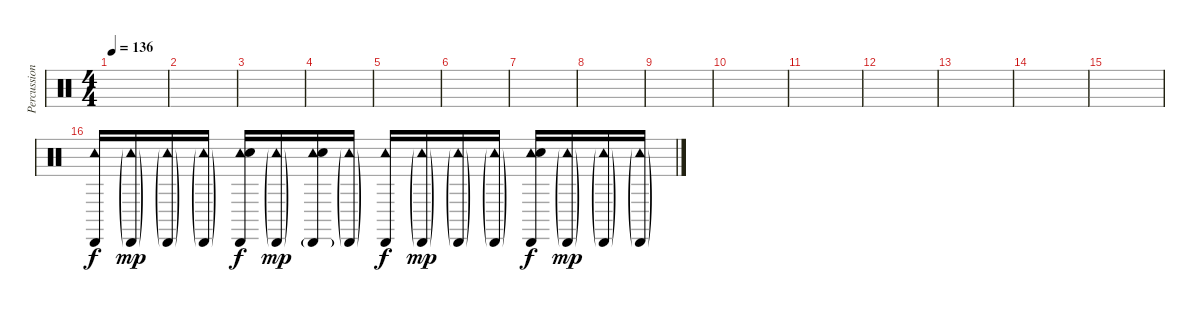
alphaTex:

\track ("Percussion (2)" "Percussion") {instrument percussion}
\staff {score}
\articulation defaults
\ts (4 4)
\tempo 136
\clef neutral
\ks c
|
|
|
|
|
|
|
|
|
|
|
|
|
|
|
("Cabasa (hit)" "Tambourine (hit)").16{dy f} ("Cabasa (hit)"{g} "Tambourine (hit)"{g}).16{dy mp} ("Cabasa (hit)"{g} "Tambourine (hit)"{g}).16 ("Cabasa (hit)"{g} "Tambourine (hit)"{g}).16 ("Cabasa (hit)" "Tambourine (hit)" "Hand Clap (hit)").16{dy f} ("Cabasa (hit)"{g} "Tambourine (hit)"{g}).16{dy mp} ("Cabasa (hit)"{g} "Tambourine (hit)" "Hand Clap (hit)").16 ("Cabasa (hit)"{g} "Tambourine (hit)"{g}).16 ("Cabasa (hit)" "Tambourine (hit)").16{dy f} ("Cabasa (hit)"{g} "Tambourine (hit)"{g}).16{dy mp} ("Cabasa (hit)"{g} "Tambourine (hit)"{g}).16 ("Cabasa (hit)"{g} "Tambourine (hit)"{g}).16 ("Cabasa (hit)" "Tambourine (hit)" "Hand Clap (hit)").16{dy f} ("Cabasa (hit)"{g} "Tambourine (hit)"{g}).16{dy mp} ("Cabasa (hit)"{g} "Tambourine (hit)"{g}).16 ("Cabasa (hit)"{g} "Tambourine (hit)"{g}).16
